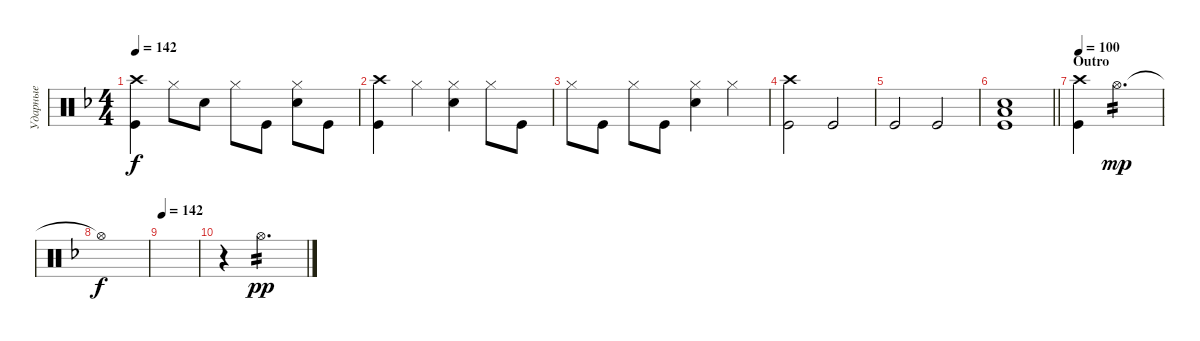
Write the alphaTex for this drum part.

\track ("Ударные" "Ударные") {instrument percussion}
\staff {score}
\articulation defaults
\ts (4 4)
\tempo 142
\clef neutral
\ks dminor
("Kick (hit)" "Crash high (hit)").4{dy f} "Hi-Hat (closed)".8 "Snare (hit) 2".8 "Hi-Hat (closed)".8 "Kick (hit)".8 ("Snare (hit) 2" "Hi-Hat (closed)").8 "Kick (hit)".8 |
("Kick (hit)" "Crash high (hit)").4 "Hi-Hat (closed)".4 ("Hi-Hat (closed)" "Snare (hit) 2").4 "Hi-Hat (closed)".8 "Kick (hit)".8 |
"Hi-Hat (closed)".8 "Kick (hit)".8 "Hi-Hat (closed)".8 "Kick (hit)".8 ("Snare (hit) 2" "Hi-Hat (closed)").4 "Hi-Hat (closed)".4 |
("Kick (hit)" "Crash high (hit)").2 "Kick (hit)".2 |
"Kick (hit)".2 "Kick (hit)".2 |
\barLineRight lightlight
("Kick (hit)" "Low Floor Tom (hit)" "Snare (hit) 2").1{bd 120} |
\section ("" "Outro")
\tempo 100
("Kick (hit)" "Crash high (hit)").4 "Hi-Hat (open)".2{d tp 2 dy mp} |
"Hi-Hat (open)"{t}.1{dy f} |
\tempo 142
|
r.4 "Hi-Hat (open)".2{d tp 2 dy pp}
